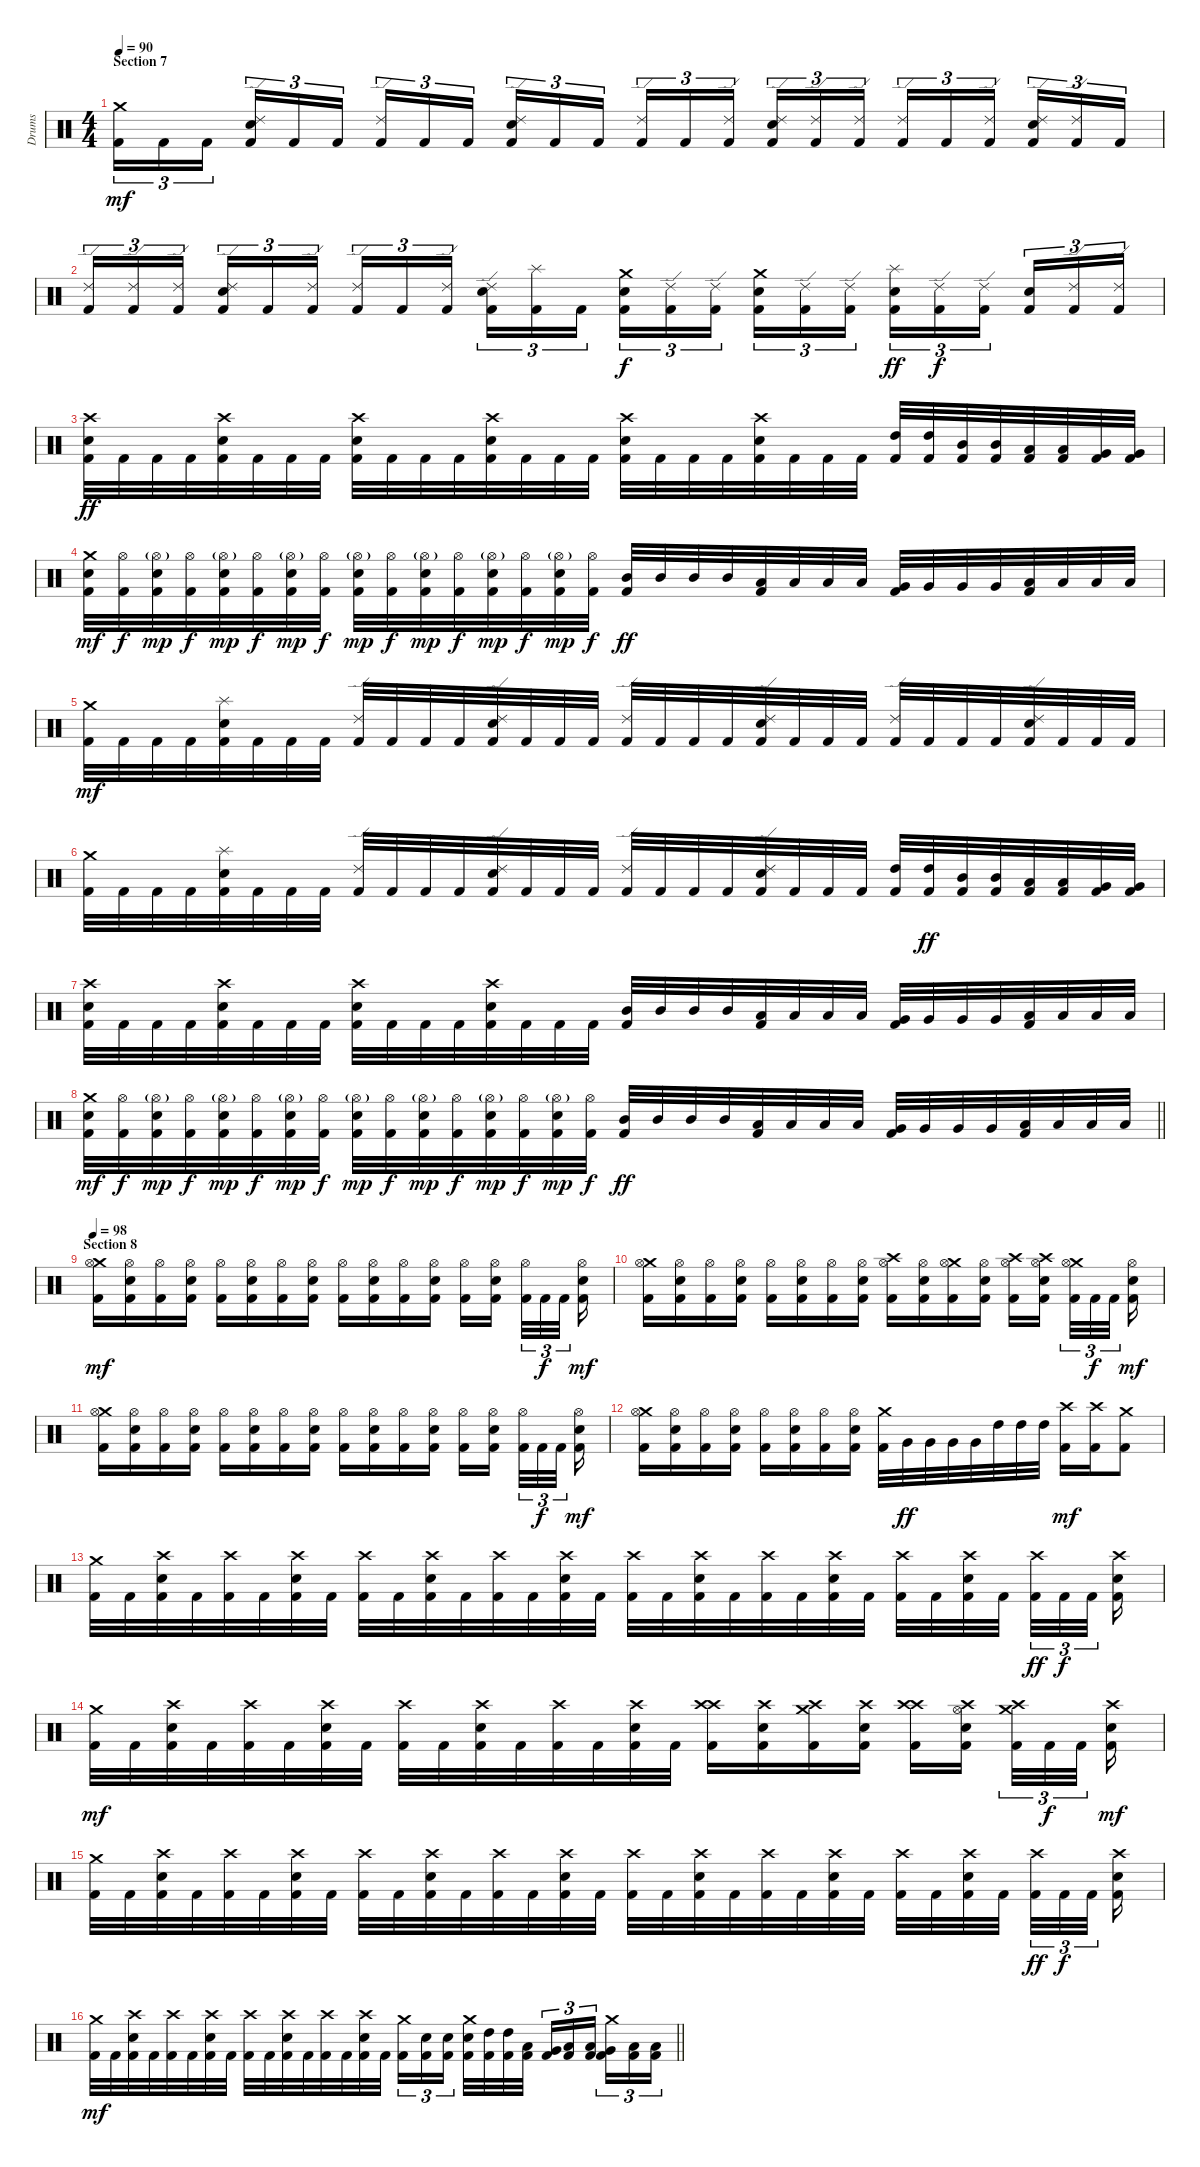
\track ("Drums" "Drums") {instrument percussion}
\staff {score}
\articulation defaults
\ts (4 4)
\section ("" "Section 7")
\tempo 90
\clef neutral
\ks c
("Crash medium (hit)" "Kick (hit) 2").16{tu (3 2) dy mf} "Kick (hit) 2".16{tu (3 2)} "Kick (hit) 2".16{tu (3 2) beam splitsecondary} ("Snare (hit) 2" "Ride (edge) 2" "Kick (hit) 2").16{tu (3 2)} "Kick (hit) 2".16{tu (3 2)} "Kick (hit) 2".16{tu (3 2)} ("Ride (edge) 2" "Kick (hit) 2").16{tu (3 2)} "Kick (hit) 2".16{tu (3 2)} "Kick (hit) 2".16{tu (3 2) beam splitsecondary} ("Snare (hit) 2" "Ride (edge) 2" "Kick (hit) 2").16{tu (3 2)} "Kick (hit) 2".16{tu (3 2)} "Kick (hit) 2".16{tu (3 2)} ("Ride (edge) 2" "Kick (hit) 2").16{tu (3 2)} "Kick (hit) 2".16{tu (3 2)} ("Ride (edge) 2" "Kick (hit) 2").16{tu (3 2) beam splitsecondary} ("Snare (hit) 2" "Ride (edge) 2" "Kick (hit) 2").16{tu (3 2)} ("Ride (edge) 2" "Kick (hit) 2").16{tu (3 2)} ("Ride (edge) 2" "Kick (hit) 2").16{tu (3 2)} ("Ride (edge) 2" "Kick (hit) 2").16{tu (3 2)} "Kick (hit) 2".16{tu (3 2)} ("Ride (edge) 2" "Kick (hit) 2").16{tu (3 2) beam splitsecondary} ("Snare (hit) 2" "Ride (edge) 2" "Kick (hit) 2").16{tu (3 2)} ("Ride (edge) 2" "Kick (hit) 2").16{tu (3 2)} "Kick (hit) 2".16{tu (3 2)} |
("Ride (edge) 2" "Kick (hit) 2").16{tu (3 2)} ("Ride (edge) 2" "Kick (hit) 2").16{tu (3 2)} ("Ride (edge) 2" "Kick (hit) 2").16{tu (3 2) beam splitsecondary} ("Snare (hit) 2" "Ride (edge) 2" "Kick (hit) 2").16{tu (3 2)} "Kick (hit) 2".16{tu (3 2)} ("Ride (edge) 2" "Kick (hit) 2").16{tu (3 2)} ("Ride (edge) 2" "Kick (hit) 2").16{tu (3 2)} "Kick (hit) 2".16{tu (3 2)} ("Ride (edge) 2" "Kick (hit) 2").16{tu (3 2) beam splitsecondary} ("Snare (hit) 2" "Ride (edge) 2" "Kick (hit) 2").16{tu (3 2)} ("Splash (hit)" "Kick (hit) 2").16{tu (3 2)} "Kick (hit) 2".16{tu (3 2)} ("Crash medium (hit)" "Snare (hit) 2" "Kick (hit) 2").16{tu (3 2) dy f} ("Ride (edge) 2" "Kick (hit) 2").16{tu (3 2)} ("Ride (edge) 2" "Kick (hit) 2").16{tu (3 2) beam splitsecondary} ("Crash medium (hit)" "Snare (hit) 2" "Kick (hit) 2").16{tu (3 2)} ("Ride (edge) 2" "Kick (hit) 2").16{tu (3 2)} ("Ride (edge) 2" "Kick (hit) 2").16{tu (3 2)} ("Splash (hit)" "Snare (hit) 2" "Kick (hit) 2").16{tu (3 2) dy ff} ("Ride (edge) 2" "Kick (hit) 2").16{tu (3 2) dy f} ("Ride (edge) 2" "Kick (hit) 2").16{tu (3 2) beam splitsecondary} ("Snare (hit) 2" "Kick (hit) 2").16{tu (3 2)} ("Ride (edge) 2" "Kick (hit) 2").16{tu (3 2)} ("Ride (edge) 2" "Kick (hit) 2").16{tu (3 2)} |
("Crash high (hit)" "Snare (hit) 2" "Kick (hit) 2").32{dy ff} "Kick (hit) 2".32 "Kick (hit) 2".32 "Kick (hit) 2".32 ("Crash high (hit)" "Snare (hit) 2" "Kick (hit) 2").32 "Kick (hit) 2".32 "Kick (hit) 2".32 "Kick (hit) 2".32 ("Crash high (hit)" "Snare (hit) 2" "Kick (hit) 2").32 "Kick (hit) 2".32 "Kick (hit) 2".32 "Kick (hit) 2".32 ("Crash high (hit)" "Snare (hit) 2" "Kick (hit) 2").32 "Kick (hit) 2".32 "Kick (hit) 2".32 "Kick (hit) 2".32 ("Crash high (hit)" "Snare (hit) 2" "Kick (hit) 2").32 "Kick (hit) 2".32 "Kick (hit) 2".32 "Kick (hit) 2".32 ("Crash high (hit)" "Snare (hit) 2" "Kick (hit) 2").32 "Kick (hit) 2".32 "Kick (hit) 2".32 "Kick (hit) 2".32 ("High Tom (hit)" "Kick (hit) 2").32 ("High Tom (hit)" "Kick (hit) 2").32 ("Mid Tom (hit)" "Kick (hit) 2").32 ("Mid Tom (hit)" "Kick (hit) 2").32 ("Low Tom (hit)" "Kick (hit) 2").32 ("Low Tom (hit)" "Kick (hit) 2").32 ("Very Low Tom (hit)" "Kick (hit) 2").32 ("Very Low Tom (hit)" "Kick (hit) 2").32 |
("Crash medium (hit)" "Snare (hit) 2" "Kick (hit) 2").32{dy mf} ("Hi-Hat (open)" "Kick (hit) 2").32{dy f} ("Snare (hit) 2" "Hi-Hat (open)"{g} "Kick (hit) 2").32{dy mp} ("Hi-Hat (open)" "Kick (hit) 2").32{dy f} ("Snare (hit) 2" "Hi-Hat (open)"{g} "Kick (hit) 2").32{dy mp} ("Hi-Hat (open)" "Kick (hit) 2").32{dy f} ("Snare (hit) 2" "Hi-Hat (open)"{g} "Kick (hit) 2").32{dy mp} ("Hi-Hat (open)" "Kick (hit) 2").32{dy f} ("Snare (hit) 2" "Hi-Hat (open)"{g} "Kick (hit) 2").32{dy mp} ("Hi-Hat (open)" "Kick (hit) 2").32{dy f} ("Snare (hit) 2" "Hi-Hat (open)"{g} "Kick (hit) 2").32{dy mp} ("Hi-Hat (open)" "Kick (hit) 2").32{dy f} ("Snare (hit) 2" "Hi-Hat (open)"{g} "Kick (hit) 2").32{dy mp} ("Hi-Hat (open)" "Kick (hit) 2").32{dy f} ("Snare (hit) 2" "Hi-Hat (open)"{g} "Kick (hit) 2").32{dy mp} ("Hi-Hat (open)" "Kick (hit) 2").32{dy f} ("Mid Tom (hit)" "Kick (hit) 2").32{dy ff} "Mid Tom (hit)".32 "Mid Tom (hit)".32 "Mid Tom (hit)".32 ("Low Tom (hit)" "Kick (hit) 2").32 "Low Tom (hit)".32 "Low Tom (hit)".32 "Low Tom (hit)".32 ("Very Low Tom (hit)" "Kick (hit) 2").32 "Very Low Tom (hit)".32 "Very Low Tom (hit)".32 "Very Low Tom (hit)".32 ("Low Floor Tom (hit)" "Kick (hit) 2").32 "Low Floor Tom (hit)".32 "Low Floor Tom (hit)".32 "Low Floor Tom (hit)".32 |
("Crash medium (hit)" "Kick (hit) 2").32{dy mf} "Kick (hit) 2".32 "Kick (hit) 2".32 "Kick (hit) 2".32 ("Snare (hit) 2" "Splash (hit)" "Kick (hit) 2").32 "Kick (hit) 2".32 "Kick (hit) 2".32 "Kick (hit) 2".32 ("Ride (edge) 2" "Kick (hit) 2").32 "Kick (hit) 2".32 "Kick (hit) 2".32 "Kick (hit) 2".32 ("Snare (hit) 2" "Ride (edge) 2" "Kick (hit) 2").32 "Kick (hit) 2".32 "Kick (hit) 2".32 "Kick (hit) 2".32 ("Ride (edge) 2" "Kick (hit) 2").32 "Kick (hit) 2".32 "Kick (hit) 2".32 "Kick (hit) 2".32 ("Snare (hit) 2" "Ride (edge) 2" "Kick (hit) 2").32 "Kick (hit) 2".32 "Kick (hit) 2".32 "Kick (hit) 2".32 ("Ride (edge) 2" "Kick (hit) 2").32 "Kick (hit) 2".32 "Kick (hit) 2".32 "Kick (hit) 2".32 ("Snare (hit) 2" "Ride (edge) 2" "Kick (hit) 2").32 "Kick (hit) 2".32 "Kick (hit) 2".32 "Kick (hit) 2".32 |
("Crash medium (hit)" "Kick (hit) 2").32 "Kick (hit) 2".32 "Kick (hit) 2".32 "Kick (hit) 2".32 ("Snare (hit) 2" "Splash (hit)" "Kick (hit) 2").32 "Kick (hit) 2".32 "Kick (hit) 2".32 "Kick (hit) 2".32 ("Ride (edge) 2" "Kick (hit) 2").32 "Kick (hit) 2".32 "Kick (hit) 2".32 "Kick (hit) 2".32 ("Snare (hit) 2" "Ride (edge) 2" "Kick (hit) 2").32 "Kick (hit) 2".32 "Kick (hit) 2".32 "Kick (hit) 2".32 ("Ride (edge) 2" "Kick (hit) 2").32 "Kick (hit) 2".32 "Kick (hit) 2".32 "Kick (hit) 2".32 ("Snare (hit) 2" "Ride (edge) 2" "Kick (hit) 2").32 "Kick (hit) 2".32 "Kick (hit) 2".32 "Kick (hit) 2".32 ("High Tom (hit)" "Kick (hit) 2").32 ("High Tom (hit)" "Kick (hit) 2").32{dy ff} ("Mid Tom (hit)" "Kick (hit) 2").32 ("Mid Tom (hit)" "Kick (hit) 2").32 ("Low Tom (hit)" "Kick (hit) 2").32 ("Low Tom (hit)" "Kick (hit) 2").32 ("Very Low Tom (hit)" "Kick (hit) 2").32 ("Very Low Tom (hit)" "Kick (hit) 2").32 |
("Crash high (hit)" "Snare (hit) 2" "Kick (hit) 2").32 "Kick (hit) 2".32 "Kick (hit) 2".32 "Kick (hit) 2".32 ("Crash high (hit)" "Snare (hit) 2" "Kick (hit) 2").32 "Kick (hit) 2".32 "Kick (hit) 2".32 "Kick (hit) 2".32 ("Crash high (hit)" "Snare (hit) 2" "Kick (hit) 2").32 "Kick (hit) 2".32 "Kick (hit) 2".32 "Kick (hit) 2".32 ("Crash high (hit)" "Snare (hit) 2" "Kick (hit) 2").32 "Kick (hit) 2".32 "Kick (hit) 2".32 "Kick (hit) 2".32 ("Mid Tom (hit)" "Kick (hit) 2").32 "Mid Tom (hit)".32 "Mid Tom (hit)".32 "Mid Tom (hit)".32 ("Low Tom (hit)" "Kick (hit) 2").32 "Low Tom (hit)".32 "Low Tom (hit)".32 "Low Tom (hit)".32 ("Very Low Tom (hit)" "Kick (hit) 2").32 "Very Low Tom (hit)".32 "Very Low Tom (hit)".32 "Very Low Tom (hit)".32 ("Low Floor Tom (hit)" "Kick (hit) 2").32 "Low Floor Tom (hit)".32 "Low Floor Tom (hit)".32 "Low Floor Tom (hit)".32 |
\barLineRight lightlight
("Crash medium (hit)" "Snare (hit) 2" "Kick (hit) 2").32{dy mf} ("Hi-Hat (open)" "Kick (hit) 2").32{dy f} ("Snare (hit) 2" "Hi-Hat (open)"{g} "Kick (hit) 2").32{dy mp} ("Hi-Hat (open)" "Kick (hit) 2").32{dy f} ("Snare (hit) 2" "Hi-Hat (open)"{g} "Kick (hit) 2").32{dy mp} ("Hi-Hat (open)" "Kick (hit) 2").32{dy f} ("Snare (hit) 2" "Hi-Hat (open)"{g} "Kick (hit) 2").32{dy mp} ("Hi-Hat (open)" "Kick (hit) 2").32{dy f} ("Snare (hit) 2" "Hi-Hat (open)"{g} "Kick (hit) 2").32{dy mp} ("Hi-Hat (open)" "Kick (hit) 2").32{dy f} ("Snare (hit) 2" "Hi-Hat (open)"{g} "Kick (hit) 2").32{dy mp} ("Hi-Hat (open)" "Kick (hit) 2").32{dy f} ("Snare (hit) 2" "Hi-Hat (open)"{g} "Kick (hit) 2").32{dy mp} ("Hi-Hat (open)" "Kick (hit) 2").32{dy f} ("Snare (hit) 2" "Hi-Hat (open)"{g} "Kick (hit) 2").32{dy mp} ("Hi-Hat (open)" "Kick (hit) 2").32{dy f} ("Mid Tom (hit)" "Kick (hit) 2").32{dy ff} "Mid Tom (hit)".32 "Mid Tom (hit)".32 "Mid Tom (hit)".32 ("Low Tom (hit)" "Kick (hit) 2").32 "Low Tom (hit)".32 "Low Tom (hit)".32 "Low Tom (hit)".32 ("Very Low Tom (hit)" "Kick (hit) 2").32 "Very Low Tom (hit)".32 "Very Low Tom (hit)".32 "Very Low Tom (hit)".32 ("Low Floor Tom (hit)" "Kick (hit) 2").32 "Low Floor Tom (hit)".32 "Low Floor Tom (hit)".32 "Low Floor Tom (hit)".32 |
\section ("" "Section 8")
\tempo 98
("Crash medium (hit)" "Hi-Hat (open)" "Kick (hit) 2").16{dy mf} ("Snare (hit) 2" "Hi-Hat (open)" "Kick (hit) 2").16 ("Hi-Hat (open)" "Kick (hit) 2").16 ("Snare (hit) 2" "Hi-Hat (open)" "Kick (hit) 2").16 ("Hi-Hat (open)" "Kick (hit) 2").16 ("Snare (hit) 2" "Hi-Hat (open)" "Kick (hit) 2").16 ("Hi-Hat (open)" "Kick (hit) 2").16 ("Snare (hit) 2" "Hi-Hat (open)" "Kick (hit) 2").16 ("Hi-Hat (open)" "Kick (hit) 2").16 ("Snare (hit) 2" "Hi-Hat (open)" "Kick (hit) 2").16 ("Hi-Hat (open)" "Kick (hit) 2").16 ("Snare (hit) 2" "Hi-Hat (open)" "Kick (hit) 2").16 ("Hi-Hat (open)" "Kick (hit) 2").16 ("Snare (hit) 2" "Hi-Hat (open)" "Kick (hit) 2").16{beam splitsecondary} ("Hi-Hat (open)" "Kick (hit) 2").32{tu (3 2)} "Kick (hit) 2".32{tu (3 2) dy f} "Kick (hit) 2".32{tu (3 2) beam splitsecondary} ("Snare (hit) 2" "Hi-Hat (open)" "Kick (hit) 2").16{dy mf} |
("Crash medium (hit)" "Hi-Hat (open)" "Kick (hit) 2").16 ("Snare (hit) 2" "Hi-Hat (open)" "Kick (hit) 2").16 ("Hi-Hat (open)" "Kick (hit) 2").16 ("Snare (hit) 2" "Hi-Hat (open)" "Kick (hit) 2").16 ("Hi-Hat (open)" "Kick (hit) 2").16 ("Snare (hit) 2" "Hi-Hat (open)" "Kick (hit) 2").16 ("Hi-Hat (open)" "Kick (hit) 2").16 ("Snare (hit) 2" "Hi-Hat (open)" "Kick (hit) 2").16 ("Crash high (hit)" "Hi-Hat (open)" "Kick (hit) 2").16 ("Snare (hit) 2" "Hi-Hat (open)" "Kick (hit) 2").16 ("Crash medium (hit)" "Hi-Hat (open)" "Kick (hit) 2").16 ("Snare (hit) 2" "Hi-Hat (open)" "Kick (hit) 2").16 ("Crash high (hit)" "Hi-Hat (open)" "Kick (hit) 2").16 ("Crash high (hit)" "Snare (hit) 2" "Hi-Hat (open)" "Kick (hit) 2").16{beam splitsecondary} ("Crash medium (hit)" "Hi-Hat (open)" "Kick (hit) 2").32{tu (3 2)} "Kick (hit) 2".32{tu (3 2) dy f} "Kick (hit) 2".32{tu (3 2) beam splitsecondary} ("Snare (hit) 2" "Hi-Hat (open)" "Kick (hit) 2").16{dy mf} |
("Crash medium (hit)" "Hi-Hat (open)" "Kick (hit) 2").16 ("Snare (hit) 2" "Hi-Hat (open)" "Kick (hit) 2").16 ("Hi-Hat (open)" "Kick (hit) 2").16 ("Snare (hit) 2" "Hi-Hat (open)" "Kick (hit) 2").16 ("Hi-Hat (open)" "Kick (hit) 2").16 ("Snare (hit) 2" "Hi-Hat (open)" "Kick (hit) 2").16 ("Hi-Hat (open)" "Kick (hit) 2").16 ("Snare (hit) 2" "Hi-Hat (open)" "Kick (hit) 2").16 ("Hi-Hat (open)" "Kick (hit) 2").16 ("Snare (hit) 2" "Hi-Hat (open)" "Kick (hit) 2").16 ("Hi-Hat (open)" "Kick (hit) 2").16 ("Snare (hit) 2" "Hi-Hat (open)" "Kick (hit) 2").16 ("Hi-Hat (open)" "Kick (hit) 2").16 ("Snare (hit) 2" "Hi-Hat (open)" "Kick (hit) 2").16{beam splitsecondary} ("Hi-Hat (open)" "Kick (hit) 2").32{tu (3 2)} "Kick (hit) 2".32{tu (3 2) dy f} "Kick (hit) 2".32{tu (3 2) beam splitsecondary} ("Snare (hit) 2" "Hi-Hat (open)" "Kick (hit) 2").16{dy mf} |
("Crash medium (hit)" "Hi-Hat (open)" "Kick (hit) 2").16 ("Snare (hit) 2" "Hi-Hat (open)" "Kick (hit) 2").16 ("Hi-Hat (open)" "Kick (hit) 2").16 ("Snare (hit) 2" "Hi-Hat (open)" "Kick (hit) 2").16 ("Hi-Hat (open)" "Kick (hit) 2").16 ("Snare (hit) 2" "Hi-Hat (open)" "Kick (hit) 2").16 ("Hi-Hat (open)" "Kick (hit) 2").16 ("Snare (hit) 2" "Hi-Hat (open)" "Kick (hit) 2").16 ("Crash medium (hit)" "Kick (hit) 2").32 "Very Low Tom (hit)".32{dy ff} "Very Low Tom (hit)".32 "Very Low Tom (hit)".32 "Very Low Tom (hit)".32 "High Tom (hit)".32 "High Tom (hit)".32 "High Tom (hit)".32 ("Crash high (hit)" "Kick (hit) 2").16{dy mf} ("Crash high (hit)" "Kick (hit) 2").16 ("Crash medium (hit)" "Kick (hit) 2").8 |
("Crash medium (hit)" "Kick (hit) 2").32 "Kick (hit) 2".32 ("Snare (hit) 2" "Crash high (hit)" "Kick (hit) 2").32 "Kick (hit) 2".32 ("Crash high (hit)" "Kick (hit) 2").32 "Kick (hit) 2".32 ("Snare (hit) 2" "Crash high (hit)" "Kick (hit) 2").32 "Kick (hit) 2".32 ("Crash high (hit)" "Kick (hit) 2").32 "Kick (hit) 2".32 ("Snare (hit) 2" "Crash high (hit)" "Kick (hit) 2").32 "Kick (hit) 2".32 ("Crash high (hit)" "Kick (hit) 2").32 "Kick (hit) 2".32 ("Snare (hit) 2" "Crash high (hit)" "Kick (hit) 2").32 "Kick (hit) 2".32 ("Crash high (hit)" "Kick (hit) 2").32 "Kick (hit) 2".32 ("Snare (hit) 2" "Crash high (hit)" "Kick (hit) 2").32 "Kick (hit) 2".32 ("Crash high (hit)" "Kick (hit) 2").32 "Kick (hit) 2".32 ("Snare (hit) 2" "Crash high (hit)" "Kick (hit) 2").32 "Kick (hit) 2".32 ("Crash high (hit)" "Kick (hit) 2").32 "Kick (hit) 2".32 ("Snare (hit) 2" "Crash high (hit)" "Kick (hit) 2").32 "Kick (hit) 2".32{beam splitsecondary} ("Crash high (hit)" "Kick (hit) 2").32{tu (3 2) dy ff} "Kick (hit) 2".32{tu (3 2) dy f} "Kick (hit) 2".32{tu (3 2) beam splitsecondary} ("Snare (hit) 2" "Crash high (hit)" "Kick (hit) 2").16 |
("Crash medium (hit)" "Kick (hit) 2").32{dy mf} "Kick (hit) 2".32 ("Snare (hit) 2" "Crash high (hit)" "Kick (hit) 2").32 "Kick (hit) 2".32 ("Crash high (hit)" "Kick (hit) 2").32 "Kick (hit) 2".32 ("Snare (hit) 2" "Crash high (hit)" "Kick (hit) 2").32 "Kick (hit) 2".32 ("Crash high (hit)" "Kick (hit) 2").32 "Kick (hit) 2".32 ("Snare (hit) 2" "Crash high (hit)" "Kick (hit) 2").32 "Kick (hit) 2".32 ("Crash high (hit)" "Kick (hit) 2").32 "Kick (hit) 2".32 ("Snare (hit) 2" "Crash high (hit)" "Kick (hit) 2").32 "Kick (hit) 2".32 ("Crash high (hit)" "Crash high (hit)" "Kick (hit) 2").16 ("Snare (hit) 2" "Crash high (hit)" "Kick (hit) 2").16 ("Crash medium (hit)" "Crash high (hit)" "Kick (hit) 2").16 ("Snare (hit) 2" "Crash high (hit)" "Kick (hit) 2").16 ("Crash high (hit)" "Crash high (hit)" "Kick (hit) 2").16 ("Crash high (hit)" "Snare (hit) 2" "Hi-Hat (open)" "Kick (hit) 2").16{beam splitsecondary} ("Crash medium (hit)" "Crash high (hit)" "Kick (hit) 2").32{tu (3 2)} "Kick (hit) 2".32{tu (3 2) dy f} "Kick (hit) 2".32{tu (3 2) beam splitsecondary} ("Snare (hit) 2" "Crash high (hit)" "Kick (hit) 2").16{dy mf} |
("Crash medium (hit)" "Kick (hit) 2").32 "Kick (hit) 2".32 ("Snare (hit) 2" "Crash high (hit)" "Kick (hit) 2").32 "Kick (hit) 2".32 ("Crash high (hit)" "Kick (hit) 2").32 "Kick (hit) 2".32 ("Snare (hit) 2" "Crash high (hit)" "Kick (hit) 2").32 "Kick (hit) 2".32 ("Crash high (hit)" "Kick (hit) 2").32 "Kick (hit) 2".32 ("Snare (hit) 2" "Crash high (hit)" "Kick (hit) 2").32 "Kick (hit) 2".32 ("Crash high (hit)" "Kick (hit) 2").32 "Kick (hit) 2".32 ("Snare (hit) 2" "Crash high (hit)" "Kick (hit) 2").32 "Kick (hit) 2".32 ("Crash high (hit)" "Kick (hit) 2").32 "Kick (hit) 2".32 ("Snare (hit) 2" "Crash high (hit)" "Kick (hit) 2").32 "Kick (hit) 2".32 ("Crash high (hit)" "Kick (hit) 2").32 "Kick (hit) 2".32 ("Snare (hit) 2" "Crash high (hit)" "Kick (hit) 2").32 "Kick (hit) 2".32 ("Crash high (hit)" "Kick (hit) 2").32 "Kick (hit) 2".32 ("Snare (hit) 2" "Crash high (hit)" "Kick (hit) 2").32 "Kick (hit) 2".32{beam splitsecondary} ("Crash high (hit)" "Kick (hit) 2").32{tu (3 2) dy ff} "Kick (hit) 2".32{tu (3 2) dy f} "Kick (hit) 2".32{tu (3 2) beam splitsecondary} ("Snare (hit) 2" "Crash high (hit)" "Kick (hit) 2").16 |
\barLineRight lightlight
("Crash medium (hit)" "Kick (hit) 2").32{dy mf} "Kick (hit) 2".32 ("Snare (hit) 2" "Crash high (hit)" "Kick (hit) 2").32 "Kick (hit) 2".32 ("Crash high (hit)" "Kick (hit) 2").32 "Kick (hit) 2".32 ("Snare (hit) 2" "Crash high (hit)" "Kick (hit) 2").32 "Kick (hit) 2".32 ("Crash high (hit)" "Kick (hit) 2").32 "Kick (hit) 2".32 ("Snare (hit) 2" "Crash high (hit)" "Kick (hit) 2").32 "Kick (hit) 2".32 ("Crash high (hit)" "Kick (hit) 2").32 "Kick (hit) 2".32 ("Snare (hit) 2" "Crash high (hit)" "Kick (hit) 2").32 "Kick (hit) 2".32 ("Crash medium (hit)" "Kick (hit) 2").16{tu (3 2)} ("Snare (hit) 2" "Kick (hit) 2").16{tu (3 2)} ("Snare (hit) 2" "Kick (hit) 2").16{tu (3 2) beam splitsecondary} ("Crash medium (hit)" "Snare (hit) 2" "Kick (hit) 2").32 ("High Tom (hit)" "Kick (hit) 2").32 ("High Tom (hit)" "Kick (hit) 2").32 ("Low Tom (hit)" "Kick (hit) 2").32 ("Very Low Tom (hit)" "Kick (hit) 2").16{tu (3 2)} ("Low Floor Tom (hit)" "Kick (hit) 2").16{tu (3 2)} ("Low Floor Tom (hit)" "Kick (hit) 2").16{tu (3 2) beam splitsecondary} ("Crash medium (hit)" "Very Low Tom (hit)" "Kick (hit) 2").16{tu (3 2)} ("Low Floor Tom (hit)" "Kick (hit) 2").16{tu (3 2)} ("Low Floor Tom (hit)" "Kick (hit) 2").16{tu (3 2)}
